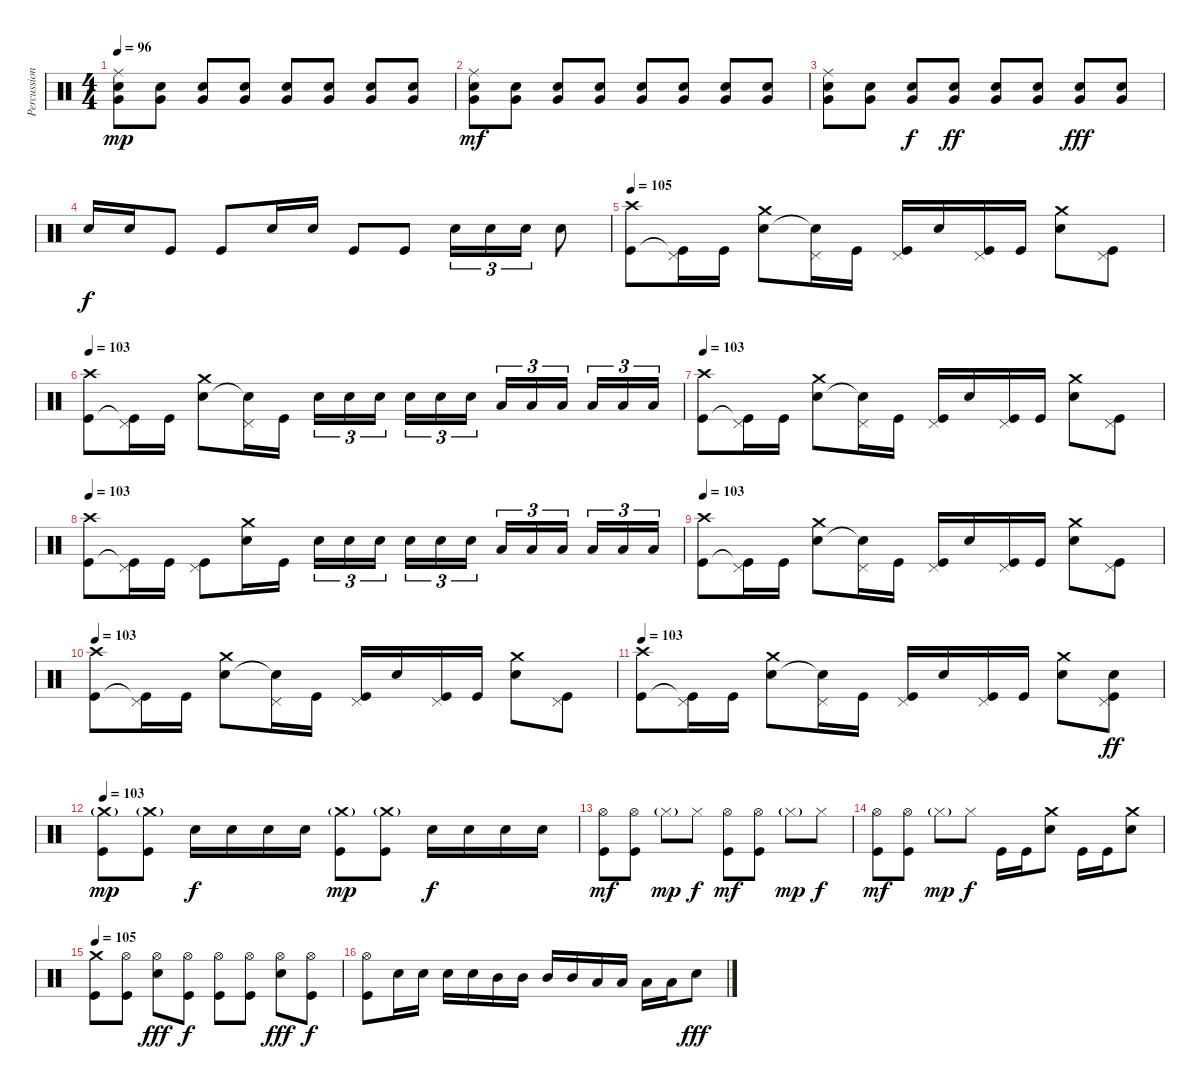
\track ("Percussions" "Percussion") {instrument percussion}
\staff {score}
\articulation defaults
\ts (4 4)
\tempo 96
\clef neutral
\ks c
("Ride (middle)" "Snare (hit) 2" "Very Low Tom (hit)").8{dy mp} ("Snare (hit) 2" "Very Low Tom (hit)").8 ("Snare (hit) 2" "Very Low Tom (hit)").8 ("Snare (hit) 2" "Very Low Tom (hit)").8 ("Snare (hit) 2" "Very Low Tom (hit)").8 ("Snare (hit) 2" "Very Low Tom (hit)").8 ("Snare (hit) 2" "Very Low Tom (hit)").8 ("Snare (hit) 2" "Very Low Tom (hit)").8 |
("Ride (middle)" "Snare (hit) 2" "Very Low Tom (hit)").8{dy mf} ("Snare (hit) 2" "Very Low Tom (hit)").8 ("Snare (hit) 2" "Very Low Tom (hit)").8 ("Snare (hit) 2" "Very Low Tom (hit)").8 ("Snare (hit) 2" "Very Low Tom (hit)").8 ("Snare (hit) 2" "Very Low Tom (hit)").8 ("Snare (hit) 2" "Very Low Tom (hit)").8 ("Snare (hit) 2" "Very Low Tom (hit)").8 |
("Ride (middle)" "Snare (hit) 2" "Very Low Tom (hit)").8 ("Snare (hit) 2" "Very Low Tom (hit)").8 ("Snare (hit) 2" "Very Low Tom (hit)").8{dy f} ("Snare (hit) 2" "Very Low Tom (hit)").8{dy ff} ("Snare (hit) 2" "Very Low Tom (hit)").8 ("Snare (hit) 2" "Very Low Tom (hit)").8 ("Snare (hit) 2" "Very Low Tom (hit)").8{dy fff} ("Snare (hit) 2" "Very Low Tom (hit)").8 |
"Electric Snare (hit)".16{dy f} "Electric Snare (hit)".16 "Kick (hit)".8 "Kick (hit)".8 "Electric Snare (hit)".16 "Electric Snare (hit)".16 "Kick (hit)".8 "Kick (hit)".8 "Electric Snare (hit)".16{tu (3 2)} "Electric Snare (hit)".16{tu (3 2)} "Electric Snare (hit)".16{tu (3 2)} "Electric Snare (hit)".8 |
\tempo 103
\tempo 105
("Crash high (hit)" "Kick (hit)").8 ("Pedal Hi-Hat (hit)" "Kick (hit)"{t}).16 "Kick (hit)".16 ("Crash medium (hit)" "Electric Snare (hit)").8 ("Pedal Hi-Hat (hit)" "Snare (hit)"{t}).16 "Kick (hit)".16 ("Pedal Hi-Hat (hit)" "Kick (hit)").16 "Electric Snare (hit)".16 ("Pedal Hi-Hat (hit)" "Kick (hit)").16 "Kick (hit)".16 ("Crash medium (hit)" "Electric Snare (hit)").8 ("Pedal Hi-Hat (hit)" "Kick (hit)").8 |
\tempo 103
("Crash high (hit)" "Kick (hit)").8 ("Pedal Hi-Hat (hit)" "Kick (hit)"{t}).16 "Kick (hit)".16 ("Crash medium (hit)" "Electric Snare (hit)").8 ("Pedal Hi-Hat (hit)" "Snare (hit)"{t}).16 "Kick (hit)".16 "Electric Snare (hit)".16{tu (3 2)} "Electric Snare (hit)".16{tu (3 2)} "Electric Snare (hit)".16{tu (3 2)} "Electric Snare (hit)".16{tu (3 2)} "Electric Snare (hit)".16{tu (3 2)} "Electric Snare (hit)".16{tu (3 2)} "Low Tom (hit)".16{tu (3 2)} "Low Tom (hit)".16{tu (3 2)} "Low Tom (hit)".16{tu (3 2)} "Low Tom (hit)".16{tu (3 2)} "Low Tom (hit)".16{tu (3 2)} "Low Tom (hit)".16{tu (3 2)} |
\tempo 103
("Crash high (hit)" "Kick (hit)").8 ("Pedal Hi-Hat (hit)" "Kick (hit)"{t}).16 "Kick (hit)".16 ("Crash medium (hit)" "Electric Snare (hit)").8 ("Pedal Hi-Hat (hit)" "Snare (hit)"{t}).16 "Kick (hit)".16 ("Pedal Hi-Hat (hit)" "Kick (hit)").16 "Electric Snare (hit)".16 ("Pedal Hi-Hat (hit)" "Kick (hit)").16 "Kick (hit)".16 ("Crash medium (hit)" "Electric Snare (hit)").8 ("Pedal Hi-Hat (hit)" "Kick (hit)").8 |
\tempo 103
("Crash high (hit)" "Kick (hit)").8 ("Pedal Hi-Hat (hit)" "Kick (hit)"{t}).16 "Kick (hit)".16 ("Pedal Hi-Hat (hit)" "Kick (hit)").8 ("Crash medium (hit)" "Electric Snare (hit)").16 "Kick (hit)".16 "Electric Snare (hit)".16{tu (3 2)} "Electric Snare (hit)".16{tu (3 2)} "Electric Snare (hit)".16{tu (3 2)} "Electric Snare (hit)".16{tu (3 2)} "Electric Snare (hit)".16{tu (3 2)} "Electric Snare (hit)".16{tu (3 2)} "Low Tom (hit)".16{tu (3 2)} "Low Tom (hit)".16{tu (3 2)} "Low Tom (hit)".16{tu (3 2)} "Low Tom (hit)".16{tu (3 2)} "Low Tom (hit)".16{tu (3 2)} "Low Tom (hit)".16{tu (3 2)} |
\tempo 103
("Crash high (hit)" "Kick (hit)").8 ("Pedal Hi-Hat (hit)" "Kick (hit)"{t}).16 "Kick (hit)".16 ("Crash medium (hit)" "Electric Snare (hit)").8 ("Pedal Hi-Hat (hit)" "Snare (hit)"{t}).16 "Kick (hit)".16 ("Pedal Hi-Hat (hit)" "Kick (hit)").16 "Electric Snare (hit)".16 ("Pedal Hi-Hat (hit)" "Kick (hit)").16 "Kick (hit)".16 ("Crash medium (hit)" "Electric Snare (hit)").8 ("Pedal Hi-Hat (hit)" "Kick (hit)").8 |
\tempo 103
("Crash high (hit)" "Kick (hit)").8 ("Pedal Hi-Hat (hit)" "Kick (hit)"{t}).16 "Kick (hit)".16 ("Crash medium (hit)" "Electric Snare (hit)").8 ("Pedal Hi-Hat (hit)" "Snare (hit)"{t}).16 "Kick (hit)".16 ("Pedal Hi-Hat (hit)" "Kick (hit)").16 "Electric Snare (hit)".16 ("Pedal Hi-Hat (hit)" "Kick (hit)").16 "Kick (hit)".16 ("Crash medium (hit)" "Electric Snare (hit)").8 ("Pedal Hi-Hat (hit)" "Kick (hit)").8 |
\tempo 103
("Crash high (hit)" "Kick (hit)").8 ("Pedal Hi-Hat (hit)" "Kick (hit)"{t}).16 "Kick (hit)".16 ("Crash medium (hit)" "Electric Snare (hit)").8 ("Pedal Hi-Hat (hit)" "Snare (hit)"{t}).16 "Kick (hit)".16 ("Pedal Hi-Hat (hit)" "Kick (hit)").16 "Electric Snare (hit)".16 ("Pedal Hi-Hat (hit)" "Kick (hit)").16 "Kick (hit)".16 ("Crash medium (hit)" "Electric Snare (hit)").8 ("Pedal Hi-Hat (hit)" "Electric Snare (hit)" "Kick (hit)").8{dy ff} |
\tempo 103
("Crash medium (hit)"{g} "Kick (hit)").8{dy mp} ("Crash medium (hit)"{g} "Kick (hit)").8 "Electric Snare (hit)".16{dy f} "Electric Snare (hit)".16 "Electric Snare (hit)".16 "Electric Snare (hit)".16 ("Crash medium (hit)"{g} "Kick (hit)").8{dy mp} ("Crash medium (hit)"{g} "Kick (hit)").8 "Electric Snare (hit)".16{dy f} "Electric Snare (hit)".16 "Electric Snare (hit)".16 "Electric Snare (hit)".16 |
("Hi-Hat (open)" "Kick (hit)").8{dy mf} ("Hi-Hat (open)" "Kick (hit)").8 "Hi-Hat (closed)"{g}.8{dy mp} "Hi-Hat (closed)".8{dy f} ("Hi-Hat (open)" "Kick (hit)").8{dy mf} ("Hi-Hat (open)" "Kick (hit)").8 "Hi-Hat (closed)"{g}.8{dy mp} "Hi-Hat (closed)".8{dy f} |
("Hi-Hat (open)" "Kick (hit)").8{dy mf} ("Hi-Hat (open)" "Kick (hit)").8 "Hi-Hat (closed)"{g}.8{dy mp} "Hi-Hat (closed)".8{dy f} "Kick (hit)".16 "Kick (hit)".16 ("Crash medium (hit)" "Electric Snare (hit)").8 "Kick (hit)".16 "Kick (hit)".16 ("Crash medium (hit)" "Electric Snare (hit)").8 |
\tempo 105
("Crash medium (hit)" "Kick (hit)").8 ("Hi-Hat (open)" "Kick (hit)").8 ("Hi-Hat (open)" "Electric Snare (hit)").8{dy fff} ("Hi-Hat (open)" "Kick (hit)").8{dy f} ("Hi-Hat (open)" "Kick (hit)").8 ("Hi-Hat (open)" "Kick (hit)").8 ("Hi-Hat (open)" "Electric Snare (hit)").8{dy fff} ("Hi-Hat (open)" "Kick (hit)").8{dy f} |
("Hi-Hat (open)" "Kick (hit)").8 "Electric Snare (hit)".16 "Electric Snare (hit)".16 "Electric Snare (hit)".16 "Electric Snare (hit)".16 "Mid Tom (hit)".16 "Mid Tom (hit)".16 "Mid Tom (hit)".16 "Mid Tom (hit)".16 "Low Tom (hit)".16 "Low Tom (hit)".16 "Low Tom (hit)".16 "Low Tom (hit)".16 "Electric Snare (hit)".8{dy fff}
